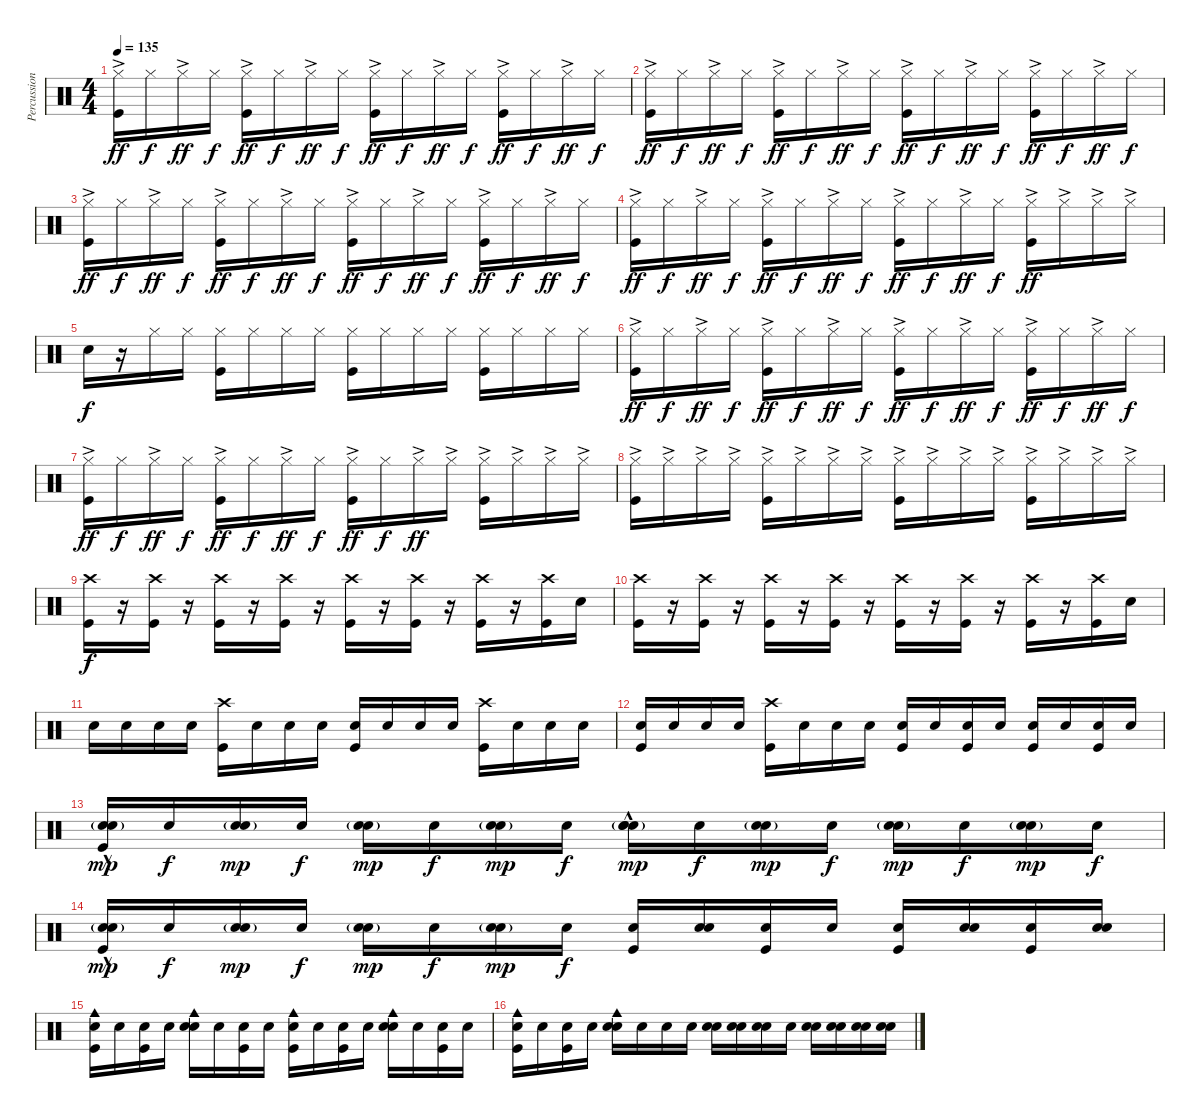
\track ("Percussion" "Percussion") {instrument percussion}
\staff {score}
\articulation defaults
\ts (4 4)
\tempo 135
\clef neutral
\ks c
("Kick (hit)" "Hi-Hat (closed)"{ac}).16{dy ff} "Hi-Hat (closed)".16{dy f} "Hi-Hat (closed)"{ac}.16{dy ff} "Hi-Hat (closed)".16{dy f} ("Kick (hit)" "Hi-Hat (closed)"{ac}).16{dy ff} "Hi-Hat (closed)".16{dy f} "Hi-Hat (closed)"{ac}.16{dy ff} "Hi-Hat (closed)".16{dy f} ("Kick (hit)" "Hi-Hat (closed)"{ac}).16{dy ff} "Hi-Hat (closed)".16{dy f} "Hi-Hat (closed)"{ac}.16{dy ff} "Hi-Hat (closed)".16{dy f} ("Kick (hit)" "Hi-Hat (closed)"{ac}).16{dy ff} "Hi-Hat (closed)".16{dy f} "Hi-Hat (closed)"{ac}.16{dy ff} "Hi-Hat (closed)".16{dy f} |
("Kick (hit)" "Hi-Hat (closed)"{ac}).16{dy ff} "Hi-Hat (closed)".16{dy f} "Hi-Hat (closed)"{ac}.16{dy ff} "Hi-Hat (closed)".16{dy f} ("Kick (hit)" "Hi-Hat (closed)"{ac}).16{dy ff} "Hi-Hat (closed)".16{dy f} "Hi-Hat (closed)"{ac}.16{dy ff} "Hi-Hat (closed)".16{dy f} ("Kick (hit)" "Hi-Hat (closed)"{ac}).16{dy ff} "Hi-Hat (closed)".16{dy f} "Hi-Hat (closed)"{ac}.16{dy ff} "Hi-Hat (closed)".16{dy f} ("Kick (hit)" "Hi-Hat (closed)"{ac}).16{dy ff} "Hi-Hat (closed)".16{dy f} "Hi-Hat (closed)"{ac}.16{dy ff} "Hi-Hat (closed)".16{dy f} |
("Kick (hit)" "Hi-Hat (closed)"{ac}).16{dy ff} "Hi-Hat (closed)".16{dy f} "Hi-Hat (closed)"{ac}.16{dy ff} "Hi-Hat (closed)".16{dy f} ("Kick (hit)" "Hi-Hat (closed)"{ac}).16{dy ff} "Hi-Hat (closed)".16{dy f} "Hi-Hat (closed)"{ac}.16{dy ff} "Hi-Hat (closed)".16{dy f} ("Kick (hit)" "Hi-Hat (closed)"{ac}).16{dy ff} "Hi-Hat (closed)".16{dy f} "Hi-Hat (closed)"{ac}.16{dy ff} "Hi-Hat (closed)".16{dy f} ("Kick (hit)" "Hi-Hat (closed)"{ac}).16{dy ff} "Hi-Hat (closed)".16{dy f} "Hi-Hat (closed)"{ac}.16{dy ff} "Hi-Hat (closed)".16{dy f} |
("Kick (hit)" "Hi-Hat (closed)"{ac}).16{dy ff} "Hi-Hat (closed)".16{dy f} "Hi-Hat (closed)"{ac}.16{dy ff} "Hi-Hat (closed)".16{dy f} ("Kick (hit)" "Hi-Hat (closed)"{ac}).16{dy ff} "Hi-Hat (closed)".16{dy f} "Hi-Hat (closed)"{ac}.16{dy ff} "Hi-Hat (closed)".16{dy f} ("Kick (hit)" "Hi-Hat (closed)"{ac}).16{dy ff} "Hi-Hat (closed)".16{dy f} "Hi-Hat (closed)"{ac}.16{dy ff} "Hi-Hat (closed)".16{dy f} ("Kick (hit)" "Hi-Hat (closed)"{ac}).16{dy ff} "Hi-Hat (closed)"{ac}.16 "Hi-Hat (closed)"{ac}.16 "Hi-Hat (closed)"{ac}.16 |
"Electric Snare (hit)".16{dy f} r.16 "Hi-Hat (closed)".16 "Hi-Hat (closed)".16 ("Kick (hit)" "Hi-Hat (closed)").16 "Hi-Hat (closed)".16 "Hi-Hat (closed)".16 "Hi-Hat (closed)".16 ("Kick (hit)" "Hi-Hat (closed)").16 "Hi-Hat (closed)".16 "Hi-Hat (closed)".16 "Hi-Hat (closed)".16 ("Kick (hit)" "Hi-Hat (closed)").16 "Hi-Hat (closed)".16 "Hi-Hat (closed)".16 "Hi-Hat (closed)".16 |
("Kick (hit)" "Hi-Hat (closed)"{ac}).16{dy ff} "Hi-Hat (closed)".16{dy f} "Hi-Hat (closed)"{ac}.16{dy ff} "Hi-Hat (closed)".16{dy f} ("Kick (hit)" "Hi-Hat (closed)"{ac}).16{dy ff} "Hi-Hat (closed)".16{dy f} "Hi-Hat (closed)"{ac}.16{dy ff} "Hi-Hat (closed)".16{dy f} ("Kick (hit)" "Hi-Hat (closed)"{ac}).16{dy ff} "Hi-Hat (closed)".16{dy f} "Hi-Hat (closed)"{ac}.16{dy ff} "Hi-Hat (closed)".16{dy f} ("Kick (hit)" "Hi-Hat (closed)"{ac}).16{dy ff} "Hi-Hat (closed)".16{dy f} "Hi-Hat (closed)"{ac}.16{dy ff} "Hi-Hat (closed)".16{dy f} |
("Kick (hit)" "Hi-Hat (closed)"{ac}).16{dy ff} "Hi-Hat (closed)".16{dy f} "Hi-Hat (closed)"{ac}.16{dy ff} "Hi-Hat (closed)".16{dy f} ("Kick (hit)" "Hi-Hat (closed)"{ac}).16{dy ff} "Hi-Hat (closed)".16{dy f} "Hi-Hat (closed)"{ac}.16{dy ff} "Hi-Hat (closed)".16{dy f} ("Kick (hit)" "Hi-Hat (closed)"{ac}).16{dy ff} "Hi-Hat (closed)".16{dy f} "Hi-Hat (closed)"{ac}.16{dy ff} "Hi-Hat (closed)"{ac}.16 ("Kick (hit)" "Hi-Hat (closed)"{ac}).16 "Hi-Hat (closed)"{ac}.16 "Hi-Hat (closed)"{ac}.16 "Hi-Hat (closed)"{ac}.16 |
("Kick (hit)" "Hi-Hat (closed)"{ac}).16 "Hi-Hat (closed)"{ac}.16 "Hi-Hat (closed)"{ac}.16 "Hi-Hat (closed)"{ac}.16 ("Kick (hit)" "Hi-Hat (closed)"{ac}).16 "Hi-Hat (closed)"{ac}.16 "Hi-Hat (closed)"{ac}.16 "Hi-Hat (closed)"{ac}.16 ("Kick (hit)" "Hi-Hat (closed)"{ac}).16 "Hi-Hat (closed)"{ac}.16 "Hi-Hat (closed)"{ac}.16 "Hi-Hat (closed)"{ac}.16 ("Kick (hit)" "Hi-Hat (closed)"{ac}).16 "Hi-Hat (closed)"{ac}.16 "Hi-Hat (closed)"{ac}.16 "Hi-Hat (closed)"{ac}.16 |
("Kick (hit)" "Crash high (hit)").16{dy f} r.16 ("Kick (hit)" "Crash high (hit)").16 r.16 ("Kick (hit)" "Crash high (hit)").16 r.16 ("Kick (hit)" "Crash high (hit)").16 r.16 ("Kick (hit)" "Crash high (hit)").16 r.16 ("Kick (hit)" "Crash high (hit)").16 r.16 ("Kick (hit)" "Crash high (hit)").16 r.16 ("Kick (hit)" "Crash high (hit)").16 "Snare (hit)".16 |
("Kick (hit)" "Crash high (hit)").16 r.16 ("Kick (hit)" "Crash high (hit)").16 r.16 ("Kick (hit)" "Crash high (hit)").16 r.16 ("Kick (hit)" "Crash high (hit)").16 r.16 ("Kick (hit)" "Crash high (hit)").16 r.16 ("Kick (hit)" "Crash high (hit)").16 r.16 ("Kick (hit)" "Crash high (hit)").16 r.16 ("Kick (hit)" "Crash high (hit)").16 "Snare (hit)".16 |
"Electric Snare (hit)".16 "Electric Snare (hit)".16 "Electric Snare (hit)".16 "Electric Snare (hit)".16 ("Kick (hit)" "Crash high (hit)").16 "Electric Snare (hit)".16 "Electric Snare (hit)".16 "Electric Snare (hit)".16 ("Kick (hit)" "Electric Snare (hit)").16 "Electric Snare (hit)".16 "Electric Snare (hit)".16 "Electric Snare (hit)".16 ("Kick (hit)" "Crash high (hit)").16 "Electric Snare (hit)".16 "Electric Snare (hit)".16 "Electric Snare (hit)".16 |
("Kick (hit)" "Electric Snare (hit)").16 "Electric Snare (hit)".16 "Electric Snare (hit)".16 "Electric Snare (hit)".16 ("Kick (hit)" "Crash high (hit)").16 "Electric Snare (hit)".16 "Electric Snare (hit)".16 "Electric Snare (hit)".16 ("Kick (hit)" "Electric Snare (hit)").16 "Electric Snare (hit)".16 ("Kick (hit)" "Electric Snare (hit)").16 "Electric Snare (hit)".16 ("Kick (hit)" "Electric Snare (hit)").16 "Electric Snare (hit)".16 ("Kick (hit)" "Electric Snare (hit)").16 "Electric Snare (hit)".16 |
("Snare (hit)" "Kick (hit)"{hac} "Snare (hit) 2"{g}).16{dy mp} "Snare (hit)".16{dy f} ("Snare (hit)" "Snare (hit) 2"{g}).16{dy mp} "Snare (hit)".16{dy f} ("Snare (hit)" "Snare (hit) 2"{g}).16{dy mp} "Snare (hit)".16{dy f} ("Snare (hit)" "Snare (hit) 2"{g}).16{dy mp} "Snare (hit)".16{dy f} ("Snare (hit)" "Electric Snare (hit)"{hac} "Snare (hit) 2"{g}).16{dy mp} "Snare (hit)".16{dy f} ("Snare (hit)" "Snare (hit) 2"{g}).16{dy mp} "Snare (hit)".16{dy f} ("Snare (hit)" "Snare (hit) 2"{g}).16{dy mp} "Snare (hit)".16{dy f} ("Snare (hit)" "Snare (hit) 2"{g}).16{dy mp} "Snare (hit)".16{dy f} |
("Snare (hit)" "Kick (hit)"{hac} "Snare (hit) 2"{g}).16{dy mp} "Snare (hit)".16{dy f} ("Snare (hit)" "Snare (hit) 2"{g}).16{dy mp} "Snare (hit)".16{dy f} ("Snare (hit)" "Snare (hit) 2"{g}).16{dy mp} "Snare (hit)".16{dy f} ("Snare (hit)" "Snare (hit) 2"{g}).16{dy mp} "Snare (hit)".16{dy f} ("Kick (hit)" "Electric Snare (hit)").16 ("Snare (hit)" "Electric Snare (hit)").16 ("Kick (hit)" "Electric Snare (hit)").16 "Electric Snare (hit)".16 ("Kick (hit)" "Electric Snare (hit)").16 ("Snare (hit)" "Electric Snare (hit)").16 ("Kick (hit)" "Electric Snare (hit)").16 ("Snare (hit)" "Electric Snare (hit)").16 |
("Snare (hit)" "Kick (hit)" "Cowbell medium (hit)").16 "Snare (hit)".16 ("Snare (hit)" "Kick (hit)").16 "Snare (hit)".16 ("Snare (hit)" "Electric Snare (hit)" "Cowbell medium (hit)").16 "Snare (hit)".16 ("Snare (hit)" "Kick (hit)").16 "Snare (hit)".16 ("Snare (hit)" "Kick (hit)" "Cowbell medium (hit)").16 "Snare (hit)".16 ("Snare (hit)" "Kick (hit)").16 "Snare (hit)".16 ("Snare (hit)" "Electric Snare (hit)" "Cowbell medium (hit)").16 "Snare (hit)".16 ("Snare (hit)" "Kick (hit)").16 "Snare (hit)".16 |
("Snare (hit)" "Kick (hit)" "Cowbell medium (hit)").16 "Snare (hit)".16 ("Snare (hit)" "Kick (hit)").16 "Snare (hit)".16 ("Snare (hit)" "Electric Snare (hit)" "Cowbell medium (hit)").16 "Snare (hit)".16 "Snare (hit)".16 "Snare (hit)".16 ("Snare (hit)" "Electric Snare (hit)").16 ("Snare (hit)" "Electric Snare (hit)").16 ("Snare (hit)" "Electric Snare (hit)").16 "Snare (hit)".16 ("Snare (hit)" "Electric Snare (hit)").16 ("Snare (hit)" "Electric Snare (hit)").16 ("Snare (hit)" "Electric Snare (hit)").16 ("Snare (hit)" "Electric Snare (hit)").16
